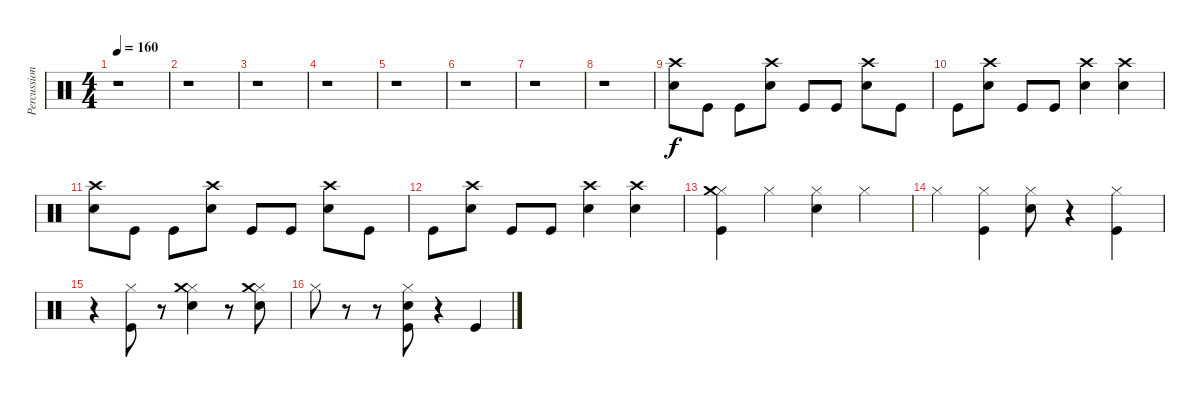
\track ("Percussion" "Percussion") {instrument percussion}
\staff {score}
\articulation defaults
\ts (4 4)
\tempo 160
\clef neutral
\ks c
r.1{dy f} |
r.1 |
r.1 |
r.1 |
r.1 |
r.1 |
r.1 |
r.1 |
("Crash high (hit)" "Snare (hit) 2").8 "Kick (hit)".8 "Kick (hit)".8 ("Crash high (hit)" "Snare (hit) 2").8 "Kick (hit)".8 "Kick (hit)".8 ("Crash high (hit)" "Snare (hit) 2").8 "Kick (hit)".8 |
"Kick (hit)".8 ("Crash high (hit)" "Snare (hit) 2").8 "Kick (hit)".8 "Kick (hit)".8 ("Crash high (hit)" "Snare (hit) 2").4 ("Crash high (hit)" "Snare (hit) 2").4 |
("Crash high (hit)" "Snare (hit) 2").8 "Kick (hit)".8 "Kick (hit)".8 ("Crash high (hit)" "Snare (hit) 2").8 "Kick (hit)".8 "Kick (hit)".8 ("Crash high (hit)" "Snare (hit) 2").8 "Kick (hit)".8 |
"Kick (hit)".8 ("Crash high (hit)" "Snare (hit) 2").8 "Kick (hit)".8 "Kick (hit)".8 ("Crash high (hit)" "Snare (hit) 2").4 ("Crash high (hit)" "Snare (hit) 2").4 |
("Hi-Hat (closed)" "Crash medium (hit)" "Kick (hit)").4 "Hi-Hat (closed)".4 ("Hi-Hat (closed)" "Snare (hit) 2").4 "Hi-Hat (closed)".4 |
"Hi-Hat (closed)".4 ("Hi-Hat (closed)" "Kick (hit)").4 ("Hi-Hat (closed)" "Snare (hit) 2").8 r.4 ("Hi-Hat (closed)" "Kick (hit)").4 |
r.4 ("Hi-Hat (closed)" "Kick (hit)").8 r.8 ("Hi-Hat (closed)" "Crash medium (hit)" "Snare (hit) 2").4 r.8 ("Hi-Hat (closed)" "Crash medium (hit)" "Snare (hit) 2").8 |
"Hi-Hat (closed)".8 r.8 r.8 ("Hi-Hat (closed)" "Snare (hit) 2" "Kick (hit)").8 r.4 "Kick (hit)".4
